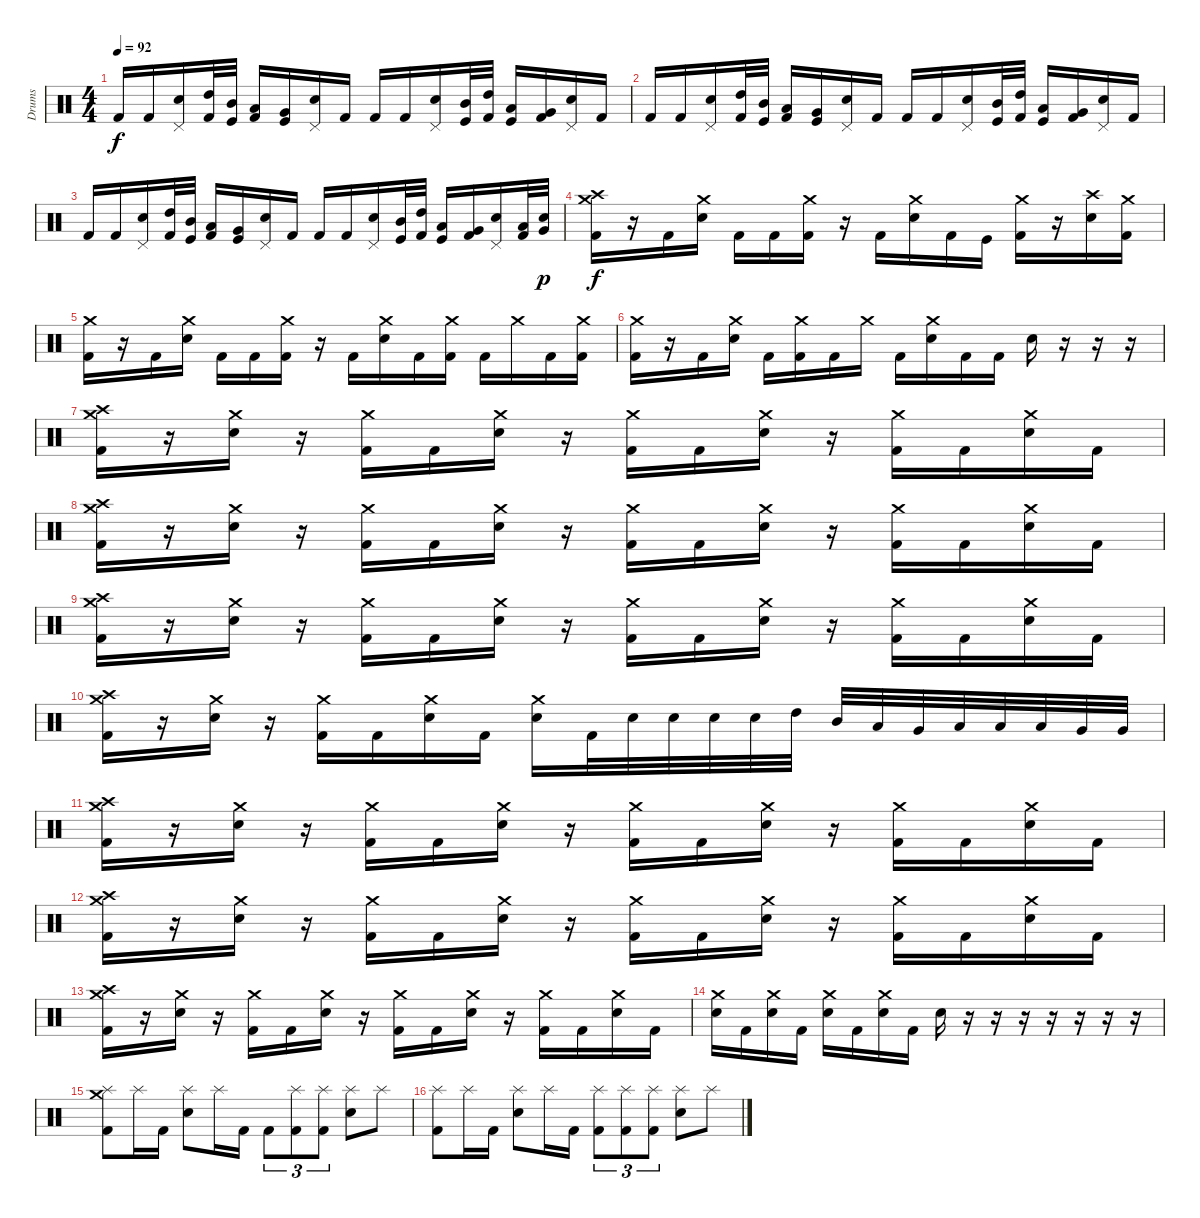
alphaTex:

\track ("Drums" "Drums") {instrument percussion}
\staff {score}
\articulation defaults
\ts (4 4)
\tempo 92
\clef neutral
\ks c "Kick (hit) 2".16{dy f} "Kick (hit) 2".16
("Pedal Hi-Hat (hit)" "Electric Snare (hit)").16 ("High Tom (hit)" "Kick (hit) 2").32 ("Mid Tom (hit)" "Kick (hit)").32 ("Low Tom (hit)" "Kick (hit) 2").16 ("Very Low Tom (hit)" "Kick (hit)").16 ("Pedal Hi-Hat (hit)" "Electric Snare (hit)").16 "Kick (hit) 2".16 "Kick (hit) 2".16 "Kick (hit) 2".16 ("Pedal Hi-Hat (hit)" "Electric Snare (hit)").16 ("Mid Tom (hit)" "Kick (hit)").32 ("High Tom (hit)" "Kick (hit) 2").32 ("Low Tom (hit)" "Kick (hit)").16 ("Very Low Tom (hit)" "Kick (hit) 2").16 ("Pedal Hi-Hat (hit)" "Electric Snare (hit)").16 "Kick (hit) 2".16 |
"Kick (hit) 2".16 "Kick (hit) 2".16 ("Pedal Hi-Hat (hit)" "Electric Snare (hit)").16 ("High Tom (hit)" "Kick (hit) 2").32 ("Mid Tom (hit)" "Kick (hit)").32 ("Low Tom (hit)" "Kick (hit) 2").16 ("Very Low Tom (hit)" "Kick (hit)").16 ("Pedal Hi-Hat (hit)" "Electric Snare (hit)").16 "Kick (hit) 2".16 "Kick (hit) 2".16 "Kick (hit) 2".16 ("Pedal Hi-Hat (hit)" "Electric Snare (hit)").16 ("Mid Tom (hit)" "Kick (hit)").32 ("High Tom (hit)" "Kick (hit) 2").32 ("Low Tom (hit)" "Kick (hit)").16 ("Very Low Tom (hit)" "Kick (hit) 2").16 ("Pedal Hi-Hat (hit)" "Electric Snare (hit)").16 "Kick (hit) 2".16 |
"Kick (hit) 2".16 "Kick (hit) 2".16 ("Pedal Hi-Hat (hit)" "Electric Snare (hit)").16 ("High Tom (hit)" "Kick (hit) 2").32 ("Mid Tom (hit)" "Kick (hit)").32 ("Low Tom (hit)" "Kick (hit) 2").16 ("Very Low Tom (hit)" "Kick (hit)").16 ("Pedal Hi-Hat (hit)" "Electric Snare (hit)").16 "Kick (hit) 2".16 "Kick (hit) 2".16 "Kick (hit) 2".16 ("Pedal Hi-Hat (hit)" "Electric Snare (hit)").16 ("Mid Tom (hit)" "Kick (hit)").32 ("High Tom (hit)" "Kick (hit) 2").32 ("Low Tom (hit)" "Kick (hit)").16 ("Very Low Tom (hit)" "Kick (hit) 2").16 ("Pedal Hi-Hat (hit)" "Electric Snare (hit)").16 ("Kick (hit) 2" "Low Tom (hit)").32 ("Electric Snare (hit)" "Very Low Tom (hit)").32{dy p} |
("Crash high (hit)" "Crash medium (hit)" "Kick (hit) 2").16{dy f} r.16 "Kick (hit) 2".16 ("Crash medium (hit)" "Electric Snare (hit)").16 "Kick (hit) 2".16 "Kick (hit) 2".16 ("Crash medium (hit)" "Kick (hit) 2").16 r.16 "Kick (hit) 2".16 ("Crash medium (hit)" "Electric Snare (hit)").16 "Kick (hit) 2".16 "Kick (hit)".16 ("Crash medium (hit)" "Kick (hit) 2").16 r.16 ("Crash high (hit)" "Electric Snare (hit)").16 ("Crash medium (hit)" "Kick (hit) 2").16 |
("Crash medium (hit)" "Kick (hit) 2").16 r.16 "Kick (hit) 2".16 ("Crash medium (hit)" "Electric Snare (hit)").16 "Kick (hit) 2".16 "Kick (hit) 2".16 ("Crash medium (hit)" "Kick (hit) 2").16 r.16 "Kick (hit) 2".16 ("Crash medium (hit)" "Electric Snare (hit)").16 "Kick (hit) 2".16 ("Crash medium (hit)" "Kick (hit) 2").16 "Kick (hit) 2".16 "Crash medium (hit)".16 "Kick (hit) 2".16 ("Crash medium (hit)" "Kick (hit) 2").16 |
("Crash medium (hit)" "Kick (hit) 2").16 r.16 "Kick (hit) 2".16 ("Crash medium (hit)" "Electric Snare (hit)").16 "Kick (hit) 2".16 ("Crash medium (hit)" "Kick (hit) 2").16 "Kick (hit) 2".16 "Crash medium (hit)".16 "Kick (hit) 2".16 ("Crash medium (hit)" "Electric Snare (hit)").16 "Kick (hit) 2".16 "Kick (hit) 2".16 "Electric Snare (hit)".16 r.16 r.16 r.16 |
("Crash high (hit)" "Crash medium (hit)" "Kick (hit) 2").16 r.16 ("Crash medium (hit)" "Electric Snare (hit)").16 r.16 ("Crash medium (hit)" "Kick (hit) 2").16 "Kick (hit) 2".16 ("Crash medium (hit)" "Electric Snare (hit)").16 r.16 ("Crash medium (hit)" "Kick (hit) 2").16 "Kick (hit) 2".16 ("Crash medium (hit)" "Electric Snare (hit)").16 r.16 ("Crash medium (hit)" "Kick (hit) 2").16 "Kick (hit) 2".16 ("Crash medium (hit)" "Electric Snare (hit)").16 "Kick (hit) 2".16 |
("Crash high (hit)" "Crash medium (hit)" "Kick (hit) 2").16 r.16 ("Crash medium (hit)" "Electric Snare (hit)").16 r.16 ("Crash medium (hit)" "Kick (hit) 2").16 "Kick (hit) 2".16 ("Crash medium (hit)" "Electric Snare (hit)").16 r.16 ("Crash medium (hit)" "Kick (hit) 2").16 "Kick (hit) 2".16 ("Crash medium (hit)" "Electric Snare (hit)").16 r.16 ("Crash medium (hit)" "Kick (hit) 2").16 "Kick (hit) 2".16 ("Crash medium (hit)" "Electric Snare (hit)").16 "Kick (hit) 2".16 |
("Crash high (hit)" "Crash medium (hit)" "Kick (hit) 2").16 r.16 ("Crash medium (hit)" "Electric Snare (hit)").16 r.16 ("Crash medium (hit)" "Kick (hit) 2").16 "Kick (hit) 2".16 ("Crash medium (hit)" "Electric Snare (hit)").16 r.16 ("Crash medium (hit)" "Kick (hit) 2").16 "Kick (hit) 2".16 ("Crash medium (hit)" "Electric Snare (hit)").16 r.16 ("Crash medium (hit)" "Kick (hit) 2").16 "Kick (hit) 2".16 ("Crash medium (hit)" "Electric Snare (hit)").16 "Kick (hit) 2".16 |
("Crash high (hit)" "Crash medium (hit)" "Kick (hit) 2").16 r.16 ("Crash medium (hit)" "Electric Snare (hit)").16 r.16 ("Crash medium (hit)" "Kick (hit) 2").16 "Kick (hit) 2".16 ("Crash medium (hit)" "Electric Snare (hit)").16 "Kick (hit) 2".16 ("Crash medium (hit)" "Electric Snare (hit)").16 "Kick (hit) 2".32 "Electric Snare (hit)".32 "Electric Snare (hit)".32 "Electric Snare (hit)".32 "Electric Snare (hit)".32 "High Tom (hit)".32 "Mid Tom (hit)".32 "Low Tom (hit)".32 "Very Low Tom (hit)".32 "Low Floor Tom (hit)".32 "Low Floor Tom (hit)".32 "Low Floor Tom (hit)".32 "Very Low Tom (hit)".32 "Very Low Tom (hit)".32 |
("Crash high (hit)" "Crash medium (hit)" "Kick (hit) 2").16 r.16 ("Crash medium (hit)" "Electric Snare (hit)").16 r.16 ("Crash medium (hit)" "Kick (hit) 2").16 "Kick (hit) 2".16 ("Crash medium (hit)" "Electric Snare (hit)").16 r.16 ("Crash medium (hit)" "Kick (hit) 2").16 "Kick (hit) 2".16 ("Crash medium (hit)" "Electric Snare (hit)").16 r.16 ("Crash medium (hit)" "Kick (hit) 2").16 "Kick (hit) 2".16 ("Crash medium (hit)" "Electric Snare (hit)").16 "Kick (hit) 2".16 |
("Crash high (hit)" "Crash medium (hit)" "Kick (hit) 2").16 r.16 ("Crash medium (hit)" "Electric Snare (hit)").16 r.16 ("Crash medium (hit)" "Kick (hit) 2").16 "Kick (hit) 2".16 ("Crash medium (hit)" "Electric Snare (hit)").16 r.16 ("Crash medium (hit)" "Kick (hit) 2").16 "Kick (hit) 2".16 ("Crash medium (hit)" "Electric Snare (hit)").16 r.16 ("Crash medium (hit)" "Kick (hit) 2").16 "Kick (hit) 2".16 ("Crash medium (hit)" "Electric Snare (hit)").16 "Kick (hit) 2".16 |
("Crash high (hit)" "Crash medium (hit)" "Kick (hit) 2").16 r.16 ("Crash medium (hit)" "Electric Snare (hit)").16 r.16 ("Crash medium (hit)" "Kick (hit) 2").16 "Kick (hit) 2".16 ("Crash medium (hit)" "Electric Snare (hit)").16 r.16 ("Crash medium (hit)" "Kick (hit) 2").16 "Kick (hit) 2".16 ("Crash medium (hit)" "Electric Snare (hit)").16 r.16 ("Crash medium (hit)" "Kick (hit) 2").16 "Kick (hit) 2".16 ("Crash medium (hit)" "Electric Snare (hit)").16 "Kick (hit) 2".16 |
("Crash medium (hit)" "Electric Snare (hit)").16 "Kick (hit) 2".16 ("Crash medium (hit)" "Electric Snare (hit)").16 "Kick (hit) 2".16 ("Crash medium (hit)" "Electric Snare (hit)").16 "Kick (hit) 2".16 ("Crash medium (hit)" "Electric Snare (hit)").16 "Kick (hit) 2".16 "Electric Snare (hit)".16 r.16 r.16 r.16 r.16 r.16 r.16 r.16 |
("Splash (hit)" "Crash medium (hit)" "Kick (hit) 2").8 "Splash (hit)".16 "Kick (hit) 2".16 ("Splash (hit)" "Electric Snare (hit)").8 "Splash (hit)".16 "Kick (hit) 2".16 "Kick (hit) 2".8{tu (3 2)} ("Splash (hit)" "Kick (hit) 2").8{tu (3 2)} ("Splash (hit)" "Kick (hit) 2").8{tu (3 2)} ("Splash (hit)" "Electric Snare (hit)").8 "Splash (hit)".8 |
("Splash (hit)" "Kick (hit) 2").8 "Splash (hit)".16 "Kick (hit) 2".16 ("Splash (hit)" "Electric Snare (hit)").8 "Splash (hit)".16 "Kick (hit) 2".16 ("Splash (hit)" "Kick (hit) 2").8{tu (3 2)} ("Splash (hit)" "Kick (hit) 2").8{tu (3 2)} ("Splash (hit)" "Kick (hit) 2").8{tu (3 2)} ("Splash (hit)" "Electric Snare (hit)").8 "Splash (hit)".8
